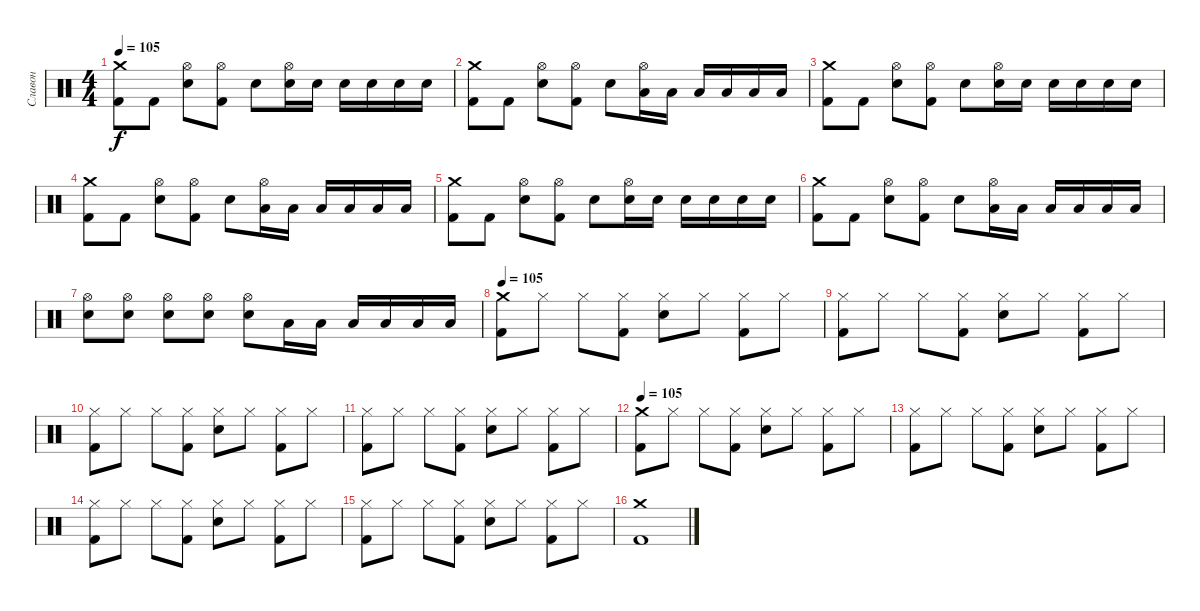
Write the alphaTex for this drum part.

\track ("Славон" "Славон") {instrument percussion}
\staff {score}
\articulation defaults
\ts (4 4)
\tempo 105
\clef neutral
\ks c
("Crash medium (hit)" "Kick (hit) 2").8{dy f} "Kick (hit) 2".8 ("Hi-Hat (open)" "Snare (hit) 2").8 ("Hi-Hat (open)" "Kick (hit) 2").8 "Snare (hit) 2".8 ("Hi-Hat (open)" "Snare (hit) 2").16 "Snare (hit) 2".16 "Snare (hit) 2".16 "Snare (hit) 2".16 "Snare (hit) 2".16 "Snare (hit) 2".16 |
("Crash medium (hit)" "Kick (hit) 2").8 "Kick (hit) 2".8 ("Hi-Hat (open)" "Snare (hit) 2").8 ("Hi-Hat (open)" "Kick (hit) 2").8 "Snare (hit) 2".8 ("Hi-Hat (open)" "Low Tom (hit)").16 "Low Tom (hit)".16 "Low Tom (hit)".16 "Low Tom (hit)".16 "Low Tom (hit)".16 "Low Tom (hit)".16 |
("Crash medium (hit)" "Kick (hit) 2").8 "Kick (hit) 2".8 ("Hi-Hat (open)" "Snare (hit) 2").8 ("Hi-Hat (open)" "Kick (hit) 2").8 "Snare (hit) 2".8 ("Hi-Hat (open)" "Snare (hit) 2").16 "Snare (hit) 2".16 "Snare (hit) 2".16 "Snare (hit) 2".16 "Snare (hit) 2".16 "Snare (hit) 2".16 |
("Crash medium (hit)" "Kick (hit) 2").8 "Kick (hit) 2".8 ("Hi-Hat (open)" "Snare (hit) 2").8 ("Hi-Hat (open)" "Kick (hit) 2").8 "Snare (hit) 2".8 ("Hi-Hat (open)" "Low Tom (hit)").16 "Low Tom (hit)".16 "Low Tom (hit)".16 "Low Tom (hit)".16 "Low Tom (hit)".16 "Low Tom (hit)".16 |
("Crash medium (hit)" "Kick (hit) 2").8 "Kick (hit) 2".8 ("Hi-Hat (open)" "Snare (hit) 2").8 ("Hi-Hat (open)" "Kick (hit) 2").8 "Snare (hit) 2".8 ("Hi-Hat (open)" "Snare (hit) 2").16 "Snare (hit) 2".16 "Snare (hit) 2".16 "Snare (hit) 2".16 "Snare (hit) 2".16 "Snare (hit) 2".16 |
("Crash medium (hit)" "Kick (hit) 2").8 "Kick (hit) 2".8 ("Hi-Hat (open)" "Snare (hit) 2").8 ("Hi-Hat (open)" "Kick (hit) 2").8 "Snare (hit) 2".8 ("Hi-Hat (open)" "Low Tom (hit)").16 "Low Tom (hit)".16 "Low Tom (hit)".16 "Low Tom (hit)".16 "Low Tom (hit)".16 "Low Tom (hit)".16 |
("Hi-Hat (open)" "Snare (hit) 2").8 ("Hi-Hat (open)" "Snare (hit) 2").8 ("Hi-Hat (open)" "Snare (hit) 2").8 ("Hi-Hat (open)" "Snare (hit) 2").8 ("Hi-Hat (open)" "Snare (hit) 2").8 "Low Tom (hit)".16 "Low Tom (hit)".16 "Low Tom (hit)".16 "Low Tom (hit)".16 "Low Tom (hit)".16 "Low Tom (hit)".16 |
\tempo 105
("Crash medium (hit)" "Kick (hit) 2").8 "Hi-Hat (closed)".8 "Hi-Hat (closed)".8 ("Hi-Hat (closed)" "Kick (hit) 2").8 ("Hi-Hat (closed)" "Snare (hit) 2").8 "Hi-Hat (closed)".8 ("Hi-Hat (closed)" "Kick (hit) 2").8 "Hi-Hat (closed)".8 |
("Hi-Hat (closed)" "Kick (hit) 2").8 "Hi-Hat (closed)".8 "Hi-Hat (closed)".8 ("Hi-Hat (closed)" "Kick (hit) 2").8 ("Hi-Hat (closed)" "Snare (hit) 2").8 "Hi-Hat (closed)".8 ("Hi-Hat (closed)" "Kick (hit) 2").8 "Hi-Hat (closed)".8 |
("Hi-Hat (closed)" "Kick (hit) 2").8 "Hi-Hat (closed)".8 "Hi-Hat (closed)".8 ("Hi-Hat (closed)" "Kick (hit) 2").8 ("Hi-Hat (closed)" "Snare (hit) 2").8 "Hi-Hat (closed)".8 ("Hi-Hat (closed)" "Kick (hit) 2").8 "Hi-Hat (closed)".8 |
("Hi-Hat (closed)" "Kick (hit) 2").8 "Hi-Hat (closed)".8 "Hi-Hat (closed)".8 ("Hi-Hat (closed)" "Kick (hit) 2").8 ("Hi-Hat (closed)" "Snare (hit) 2").8 "Hi-Hat (closed)".8 ("Hi-Hat (closed)" "Kick (hit) 2").8 "Hi-Hat (closed)".8 |
\tempo 105
("Crash medium (hit)" "Kick (hit) 2").8 "Hi-Hat (closed)".8 "Hi-Hat (closed)".8 ("Hi-Hat (closed)" "Kick (hit) 2").8 ("Hi-Hat (closed)" "Snare (hit) 2").8 "Hi-Hat (closed)".8 ("Hi-Hat (closed)" "Kick (hit) 2").8 "Hi-Hat (closed)".8 |
("Hi-Hat (closed)" "Kick (hit) 2").8 "Hi-Hat (closed)".8 "Hi-Hat (closed)".8 ("Hi-Hat (closed)" "Kick (hit) 2").8 ("Hi-Hat (closed)" "Snare (hit) 2").8 "Hi-Hat (closed)".8 ("Hi-Hat (closed)" "Kick (hit) 2").8 "Hi-Hat (closed)".8 |
("Hi-Hat (closed)" "Kick (hit) 2").8 "Hi-Hat (closed)".8 "Hi-Hat (closed)".8 ("Hi-Hat (closed)" "Kick (hit) 2").8 ("Hi-Hat (closed)" "Snare (hit) 2").8 "Hi-Hat (closed)".8 ("Hi-Hat (closed)" "Kick (hit) 2").8 "Hi-Hat (closed)".8 |
("Hi-Hat (closed)" "Kick (hit) 2").8 "Hi-Hat (closed)".8 "Hi-Hat (closed)".8 ("Hi-Hat (closed)" "Kick (hit) 2").8 ("Hi-Hat (closed)" "Snare (hit) 2").8 "Hi-Hat (closed)".8 ("Hi-Hat (closed)" "Kick (hit) 2").8 "Hi-Hat (closed)".8 |
("Crash medium (hit)" "Kick (hit) 2").1
